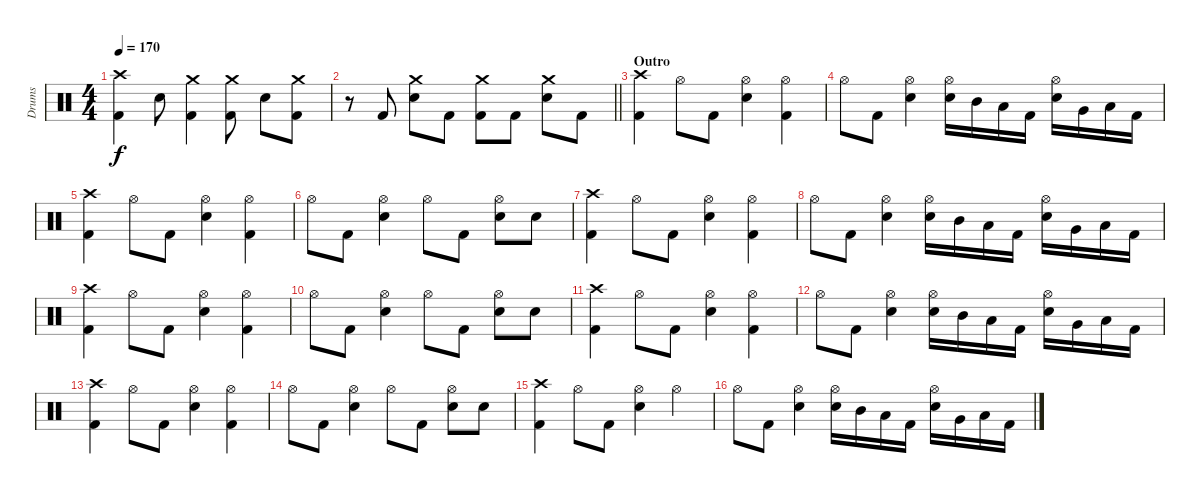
\track ("Drums" "Drums") {instrument percussion}
\staff {score}
\articulation defaults
\ts (4 4)
\tempo 170
\clef neutral
\ks c
("Crash high (hit)" "Kick (hit) 2").4{dy f} "Snare (hit) 2".8 ("Crash medium (hit)" "Kick (hit) 2").4 ("Crash medium (hit)" "Kick (hit) 2").8 "Snare (hit) 2".8 ("Crash medium (hit)" "Kick (hit) 2").8 |
\barLineRight lightlight
r.8 "Kick (hit) 2".8 ("Crash medium (hit)" "Snare (hit) 2").8 "Kick (hit) 2".8 ("Crash medium (hit)" "Kick (hit) 2").8 "Kick (hit) 2".8 ("Crash medium (hit)" "Snare (hit) 2").8 "Kick (hit) 2".8 |
\section ("" "Outro")
("Crash high (hit)" "Kick (hit) 2").4 "Hi-Hat (open)".8 "Kick (hit) 2".8 ("Hi-Hat (open)" "Snare (hit) 2").4 ("Hi-Hat (open)" "Kick (hit) 2").4 |
"Hi-Hat (open)".8 "Kick (hit) 2".8 ("Hi-Hat (open)" "Snare (hit) 2").4 ("Hi-Hat (open)" "Snare (hit) 2").16 "Mid Tom (hit)".16 "Low Tom (hit)".16 "Kick (hit) 2".16 ("Hi-Hat (open)" "Snare (hit) 2").16 "Very Low Tom (hit)".16 "Low Floor Tom (hit)".16 "Kick (hit) 2".16 |
("Crash high (hit)" "Kick (hit) 2").4 "Hi-Hat (open)".8 "Kick (hit) 2".8 ("Hi-Hat (open)" "Snare (hit) 2").4 ("Hi-Hat (open)" "Kick (hit) 2").4 |
"Hi-Hat (open)".8 "Kick (hit) 2".8 ("Hi-Hat (open)" "Snare (hit) 2").4 "Hi-Hat (open)".8 "Kick (hit) 2".8 ("Hi-Hat (open)" "Snare (hit) 2").8 "Snare (hit) 2".8 |
("Crash high (hit)" "Kick (hit) 2").4 "Hi-Hat (open)".8 "Kick (hit) 2".8 ("Hi-Hat (open)" "Snare (hit) 2").4 ("Hi-Hat (open)" "Kick (hit) 2").4 |
"Hi-Hat (open)".8 "Kick (hit) 2".8 ("Hi-Hat (open)" "Snare (hit) 2").4 ("Hi-Hat (open)" "Snare (hit) 2").16 "Mid Tom (hit)".16 "Low Tom (hit)".16 "Kick (hit) 2".16 ("Hi-Hat (open)" "Snare (hit) 2").16 "Very Low Tom (hit)".16 "Low Floor Tom (hit)".16 "Kick (hit) 2".16 |
("Crash high (hit)" "Kick (hit) 2").4 "Hi-Hat (open)".8 "Kick (hit) 2".8 ("Hi-Hat (open)" "Snare (hit) 2").4 ("Hi-Hat (open)" "Kick (hit) 2").4 |
"Hi-Hat (open)".8 "Kick (hit) 2".8 ("Hi-Hat (open)" "Snare (hit) 2").4 "Hi-Hat (open)".8 "Kick (hit) 2".8 ("Hi-Hat (open)" "Snare (hit) 2").8 "Snare (hit) 2".8 |
("Crash high (hit)" "Kick (hit) 2").4 "Hi-Hat (open)".8 "Kick (hit) 2".8 ("Hi-Hat (open)" "Snare (hit) 2").4 ("Hi-Hat (open)" "Kick (hit) 2").4 |
"Hi-Hat (open)".8 "Kick (hit) 2".8 ("Hi-Hat (open)" "Snare (hit) 2").4 ("Hi-Hat (open)" "Snare (hit) 2").16 "Mid Tom (hit)".16 "Low Tom (hit)".16 "Kick (hit) 2".16 ("Hi-Hat (open)" "Snare (hit) 2").16 "Very Low Tom (hit)".16 "Low Floor Tom (hit)".16 "Kick (hit) 2".16 |
("Crash high (hit)" "Kick (hit) 2").4 "Hi-Hat (open)".8 "Kick (hit) 2".8 ("Hi-Hat (open)" "Snare (hit) 2").4 ("Hi-Hat (open)" "Kick (hit) 2").4 |
"Hi-Hat (open)".8 "Kick (hit) 2".8 ("Hi-Hat (open)" "Snare (hit) 2").4 "Hi-Hat (open)".8 "Kick (hit) 2".8 ("Hi-Hat (open)" "Snare (hit) 2").8 "Snare (hit) 2".8 |
("Crash high (hit)" "Kick (hit) 2").4 "Hi-Hat (open)".8 "Kick (hit) 2".8 ("Hi-Hat (open)" "Snare (hit) 2").4 "Hi-Hat (open)".4 |
"Hi-Hat (open)".8 "Kick (hit) 2".8 ("Hi-Hat (open)" "Snare (hit) 2").4 ("Hi-Hat (open)" "Snare (hit) 2").16 "Mid Tom (hit)".16 "Low Tom (hit)".16 "Kick (hit) 2".16 ("Hi-Hat (open)" "Snare (hit) 2").16 "Very Low Tom (hit)".16 "Low Floor Tom (hit)".16 "Kick (hit) 2".16
